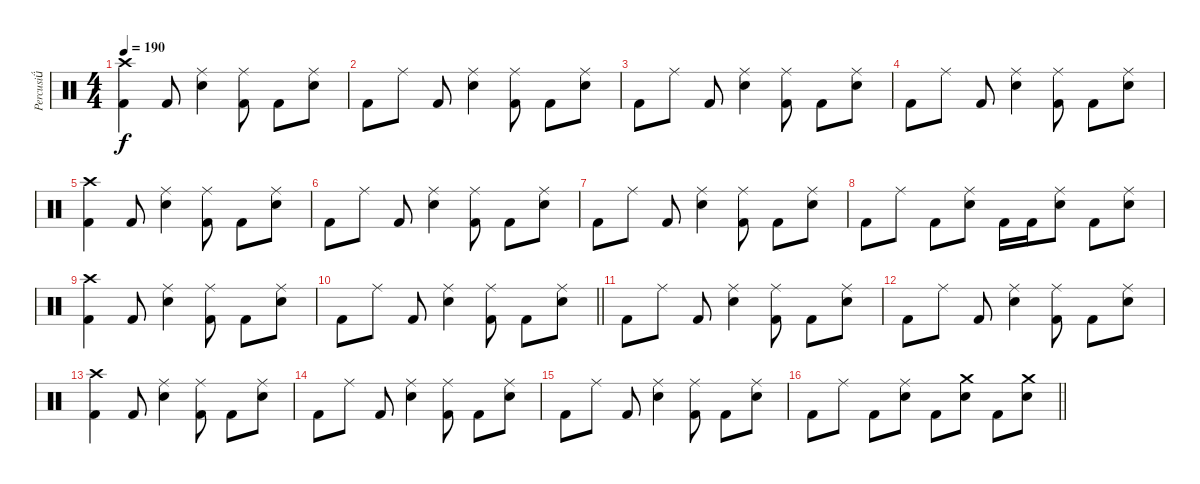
\track ("Percusi" "Percusi") {instrument percussion}
\staff {score}
\articulation defaults
\ts (4 4)
\tempo 190
\clef neutral
\ks c
("Crash high (hit)" "Kick (hit) 2").4{dy f} "Kick (hit) 2".8 ("Ride (middle)" "Electric Snare (hit)").4 ("Ride (middle)" "Kick (hit) 2").8 "Kick (hit) 2".8 ("Ride (middle)" "Electric Snare (hit)").8 |
"Kick (hit) 2".8 "Ride (middle)".8 "Kick (hit) 2".8 ("Ride (middle)" "Electric Snare (hit)").4 ("Ride (middle)" "Kick (hit) 2").8 "Kick (hit) 2".8 ("Ride (middle)" "Electric Snare (hit)").8 |
"Kick (hit) 2".8 "Ride (middle)".8 "Kick (hit) 2".8 ("Ride (middle)" "Electric Snare (hit)").4 ("Ride (middle)" "Kick (hit) 2").8 "Kick (hit) 2".8 ("Ride (middle)" "Electric Snare (hit)").8 |
"Kick (hit) 2".8 "Ride (middle)".8 "Kick (hit) 2".8 ("Ride (middle)" "Electric Snare (hit)").4 ("Ride (middle)" "Kick (hit) 2").8 "Kick (hit) 2".8 ("Ride (middle)" "Electric Snare (hit)").8 |
("Crash high (hit)" "Kick (hit) 2").4 "Kick (hit) 2".8 ("Ride (middle)" "Electric Snare (hit)").4 ("Ride (middle)" "Kick (hit) 2").8 "Kick (hit) 2".8 ("Ride (middle)" "Electric Snare (hit)").8 |
"Kick (hit) 2".8 "Ride (middle)".8 "Kick (hit) 2".8 ("Ride (middle)" "Electric Snare (hit)").4 ("Ride (middle)" "Kick (hit) 2").8 "Kick (hit) 2".8 ("Ride (middle)" "Electric Snare (hit)").8 |
"Kick (hit) 2".8 "Ride (middle)".8 "Kick (hit) 2".8 ("Ride (middle)" "Electric Snare (hit)").4 ("Ride (middle)" "Kick (hit) 2").8 "Kick (hit) 2".8 ("Ride (middle)" "Electric Snare (hit)").8 |
"Kick (hit) 2".8 "Ride (middle)".8 "Kick (hit) 2".8 ("Ride (middle)" "Electric Snare (hit)").8 "Kick (hit) 2".16 "Kick (hit) 2".16 ("Ride (middle)" "Electric Snare (hit)").8 "Kick (hit) 2".8 ("Ride (middle)" "Electric Snare (hit)").8 |
("Crash high (hit)" "Kick (hit) 2").4 "Kick (hit) 2".8 ("Ride (middle)" "Electric Snare (hit)").4 ("Ride (middle)" "Kick (hit) 2").8 "Kick (hit) 2".8 ("Ride (middle)" "Electric Snare (hit)").8 |
\barLineRight lightlight "Kick (hit) 2".8 "Ride (middle)".8 "Kick (hit) 2".8
("Ride (middle)" "Electric Snare (hit)").4 ("Ride (middle)" "Kick (hit) 2").8 "Kick (hit) 2".8 ("Ride (middle)" "Electric Snare (hit)").8 |
\section ("" "")
"Kick (hit) 2".8 "Ride (middle)".8 "Kick (hit) 2".8 ("Ride (middle)" "Electric Snare (hit)").4 ("Ride (middle)" "Kick (hit) 2").8 "Kick (hit) 2".8 ("Ride (middle)" "Electric Snare (hit)").8 |
"Kick (hit) 2".8 "Ride (middle)".8 "Kick (hit) 2".8 ("Ride (middle)" "Electric Snare (hit)").4 ("Ride (middle)" "Kick (hit) 2").8 "Kick (hit) 2".8 ("Ride (middle)" "Electric Snare (hit)").8 |
("Crash high (hit)" "Kick (hit) 2").4 "Kick (hit) 2".8 ("Ride (middle)" "Electric Snare (hit)").4 ("Ride (middle)" "Kick (hit) 2").8 "Kick (hit) 2".8 ("Ride (middle)" "Electric Snare (hit)").8 |
"Kick (hit) 2".8 "Ride (middle)".8 "Kick (hit) 2".8 ("Ride (middle)" "Electric Snare (hit)").4 ("Ride (middle)" "Kick (hit) 2").8 "Kick (hit) 2".8 ("Ride (middle)" "Electric Snare (hit)").8 |
"Kick (hit) 2".8 "Ride (middle)".8 "Kick (hit) 2".8 ("Ride (middle)" "Electric Snare (hit)").4 ("Ride (middle)" "Kick (hit) 2").8 "Kick (hit) 2".8 ("Ride (middle)" "Electric Snare (hit)").8 |
\barLineRight lightlight "Kick (hit) 2".8 "Ride (middle)".8 "Kick (hit) 2".8
("Ride (middle)" "Electric Snare (hit)").8 "Kick (hit) 2".8 ("Crash medium (hit)" "Electric Snare (hit)").8 "Kick (hit) 2".8 ("Crash medium (hit)" "Electric Snare (hit)").8
